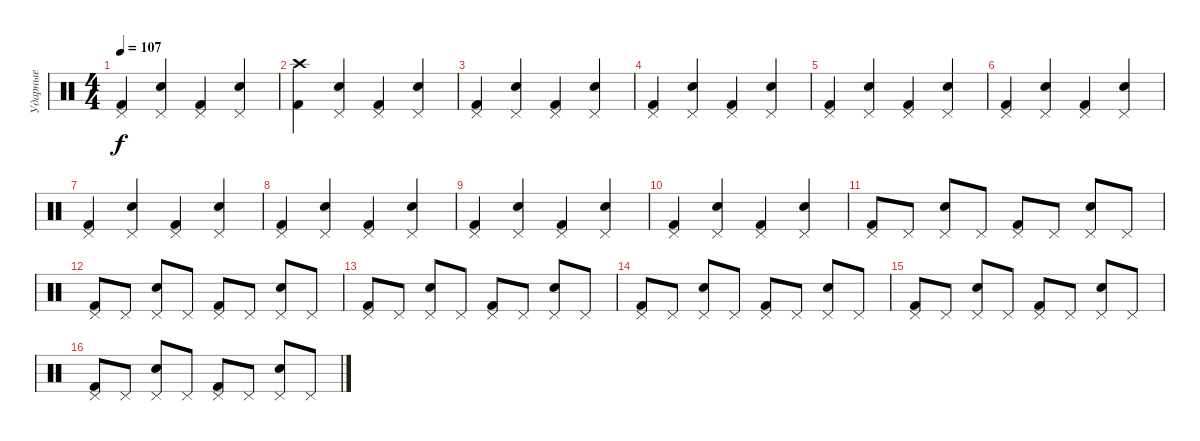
\track ("Ударные" "Ударные") {instrument percussion}
\staff {score}
\articulation defaults
\ts (4 4)
\tempo 107
\clef neutral
\ks c
("Pedal Hi-Hat (hit)" "Kick (hit) 2").4{dy f} ("Pedal Hi-Hat (hit)" "Snare (hit) 2").4 ("Pedal Hi-Hat (hit)" "Kick (hit) 2").4 ("Pedal Hi-Hat (hit)" "Snare (hit) 2").4 |
("Crash high (hit)" "Kick (hit) 2").4 ("Pedal Hi-Hat (hit)" "Snare (hit) 2").4 ("Pedal Hi-Hat (hit)" "Kick (hit) 2").4 ("Pedal Hi-Hat (hit)" "Snare (hit) 2").4 |
("Pedal Hi-Hat (hit)" "Kick (hit) 2").4 ("Pedal Hi-Hat (hit)" "Snare (hit) 2").4 ("Pedal Hi-Hat (hit)" "Kick (hit) 2").4 ("Pedal Hi-Hat (hit)" "Snare (hit) 2").4 |
("Pedal Hi-Hat (hit)" "Kick (hit) 2").4 ("Pedal Hi-Hat (hit)" "Snare (hit) 2").4 ("Pedal Hi-Hat (hit)" "Kick (hit) 2").4 ("Pedal Hi-Hat (hit)" "Snare (hit) 2").4 |
("Pedal Hi-Hat (hit)" "Kick (hit) 2").4 ("Pedal Hi-Hat (hit)" "Snare (hit) 2").4 ("Pedal Hi-Hat (hit)" "Kick (hit) 2").4 ("Pedal Hi-Hat (hit)" "Snare (hit) 2").4 |
("Pedal Hi-Hat (hit)" "Kick (hit) 2").4 ("Pedal Hi-Hat (hit)" "Snare (hit) 2").4 ("Pedal Hi-Hat (hit)" "Kick (hit) 2").4 ("Pedal Hi-Hat (hit)" "Snare (hit) 2").4 |
("Pedal Hi-Hat (hit)" "Kick (hit) 2").4 ("Pedal Hi-Hat (hit)" "Snare (hit) 2").4 ("Pedal Hi-Hat (hit)" "Kick (hit) 2").4 ("Pedal Hi-Hat (hit)" "Snare (hit) 2").4 |
("Pedal Hi-Hat (hit)" "Kick (hit) 2").4 ("Pedal Hi-Hat (hit)" "Snare (hit) 2").4 ("Pedal Hi-Hat (hit)" "Kick (hit) 2").4 ("Pedal Hi-Hat (hit)" "Snare (hit) 2").4 |
("Pedal Hi-Hat (hit)" "Kick (hit) 2").4 ("Pedal Hi-Hat (hit)" "Snare (hit) 2").4 ("Pedal Hi-Hat (hit)" "Kick (hit) 2").4 ("Pedal Hi-Hat (hit)" "Snare (hit) 2").4 |
("Pedal Hi-Hat (hit)" "Kick (hit) 2").4 ("Pedal Hi-Hat (hit)" "Snare (hit) 2").4 ("Pedal Hi-Hat (hit)" "Kick (hit) 2").4 ("Pedal Hi-Hat (hit)" "Snare (hit) 2").4 |
("Pedal Hi-Hat (hit)" "Kick (hit) 2").8 "Pedal Hi-Hat (hit)".8 ("Pedal Hi-Hat (hit)" "Snare (hit) 2").8 "Pedal Hi-Hat (hit)".8 ("Pedal Hi-Hat (hit)" "Kick (hit) 2").8 "Pedal Hi-Hat (hit)".8 ("Pedal Hi-Hat (hit)" "Snare (hit) 2").8 "Pedal Hi-Hat (hit)".8 |
("Pedal Hi-Hat (hit)" "Kick (hit) 2").8 "Pedal Hi-Hat (hit)".8 ("Pedal Hi-Hat (hit)" "Snare (hit) 2").8 "Pedal Hi-Hat (hit)".8 ("Pedal Hi-Hat (hit)" "Kick (hit) 2").8 "Pedal Hi-Hat (hit)".8 ("Pedal Hi-Hat (hit)" "Snare (hit) 2").8 "Pedal Hi-Hat (hit)".8 |
("Pedal Hi-Hat (hit)" "Kick (hit) 2").8 "Pedal Hi-Hat (hit)".8 ("Pedal Hi-Hat (hit)" "Snare (hit) 2").8 "Pedal Hi-Hat (hit)".8 ("Pedal Hi-Hat (hit)" "Kick (hit) 2").8 "Pedal Hi-Hat (hit)".8 ("Pedal Hi-Hat (hit)" "Snare (hit) 2").8 "Pedal Hi-Hat (hit)".8 |
("Pedal Hi-Hat (hit)" "Kick (hit) 2").8 "Pedal Hi-Hat (hit)".8 ("Pedal Hi-Hat (hit)" "Snare (hit) 2").8 "Pedal Hi-Hat (hit)".8 ("Pedal Hi-Hat (hit)" "Kick (hit) 2").8 "Pedal Hi-Hat (hit)".8 ("Pedal Hi-Hat (hit)" "Snare (hit) 2").8 "Pedal Hi-Hat (hit)".8 |
("Pedal Hi-Hat (hit)" "Kick (hit) 2").8 "Pedal Hi-Hat (hit)".8 ("Pedal Hi-Hat (hit)" "Snare (hit) 2").8 "Pedal Hi-Hat (hit)".8 ("Pedal Hi-Hat (hit)" "Kick (hit) 2").8 "Pedal Hi-Hat (hit)".8 ("Pedal Hi-Hat (hit)" "Snare (hit) 2").8 "Pedal Hi-Hat (hit)".8 |
("Pedal Hi-Hat (hit)" "Kick (hit) 2").8 "Pedal Hi-Hat (hit)".8 ("Pedal Hi-Hat (hit)" "Snare (hit) 2").8 "Pedal Hi-Hat (hit)".8 ("Pedal Hi-Hat (hit)" "Kick (hit) 2").8 "Pedal Hi-Hat (hit)".8 ("Pedal Hi-Hat (hit)" "Snare (hit) 2").8 "Pedal Hi-Hat (hit)".8
